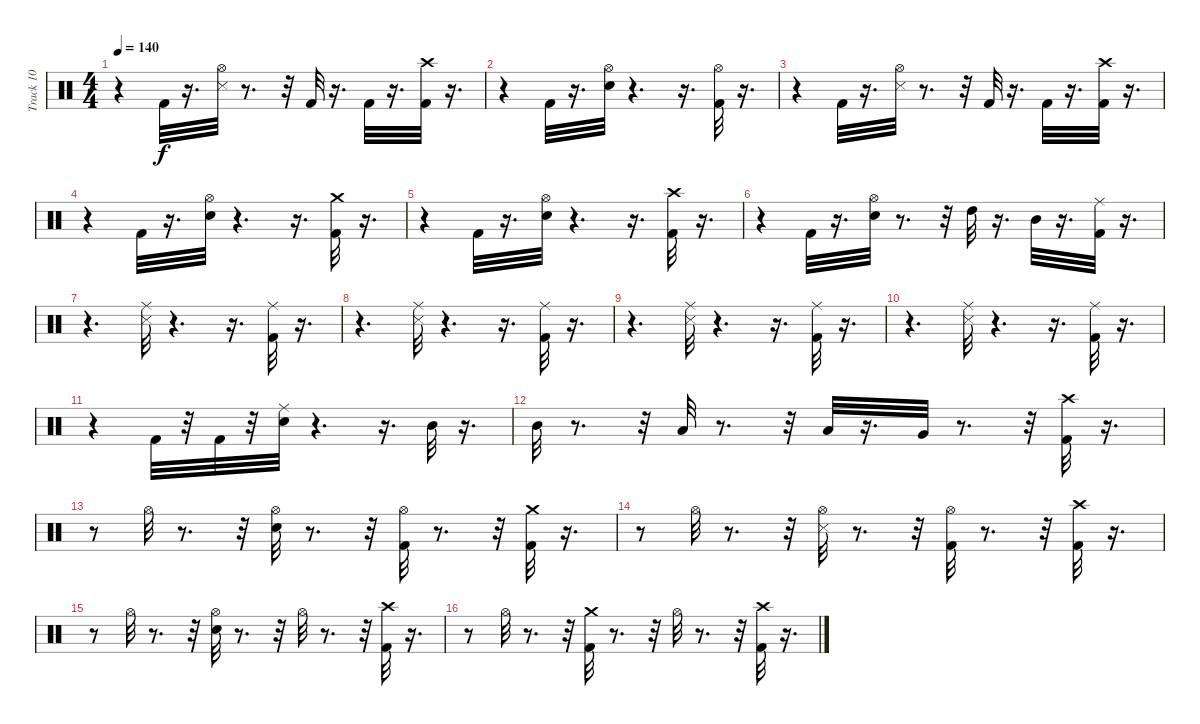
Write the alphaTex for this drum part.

\track ("Track 10" "Track 10") {instrument percussion}
\staff {score}
\articulation defaults
\ts (4 4)
\tempo 140
\clef neutral
\ks c
r.4{dy f} "Kick (hit) 2".32 r.16{d} ("Hi-Hat (open)" "Snare (side stick) 3").32 r.8{d} r.32 "Kick (hit) 2".32 r.16{d} "Kick (hit) 2".32 r.16{d} ("Crash high (hit)" "Kick (hit) 2").32 r.16{d} |
r.4 "Kick (hit) 2".32 r.16{d} ("Electric Snare (hit)" "Hi-Hat (open)").32 r.4{d} r.16{d} ("Hi-Hat (open)" "Kick (hit) 2").32 r.16{d} |
r.4 "Kick (hit) 2".32 r.16{d} ("Hi-Hat (open)" "Snare (side stick) 3").32 r.8{d} r.32 "Kick (hit) 2".32 r.16{d} "Kick (hit) 2".32 r.16{d} ("Crash high (hit)" "Kick (hit) 2").32 r.16{d} |
r.4 "Kick (hit) 2".32 r.16{d} ("Hi-Hat (open)" "Electric Snare (hit)").32 r.4{d} r.16{d} ("Kick (hit) 2" "Crash medium (hit)").32 r.16{d} |
r.4 "Kick (hit) 2".32 r.16{d} ("Hi-Hat (open)" "Electric Snare (hit)").32 r.4{d} r.16{d} ("Crash high (hit)" "Kick (hit) 2").32 r.16{d} |
r.4 "Kick (hit) 2".32 r.16{d} ("Hi-Hat (open)" "Electric Snare (hit)").32 r.8{d} r.32 "High Tom (hit)".32 r.16{d} "Mid Tom (hit)".32 r.16{d} ("Ride (middle)" "Kick (hit) 2").32 r.16{d} |
r.4{d} ("Snare (side stick) 3" "Ride (middle)").32 r.4{d} r.16{d} ("Ride (middle)" "Kick (hit) 2").32 r.16{d} |
r.4{d} ("Snare (side stick) 3" "Ride (middle)").32 r.4{d} r.16{d} ("Kick (hit) 2" "Ride (middle)").32 r.16{d} |
r.4{d} ("Snare (side stick) 3" "Ride (middle)").32 r.4{d} r.16{d} ("Ride (middle)" "Kick (hit) 2").32 r.16{d} |
r.4{d} ("Snare (side stick) 3" "Ride (middle)").32 r.4{d} r.16{d} ("Kick (hit) 2" "Ride (middle)").32 r.16{d} |
r.4 "Kick (hit) 2".32 r.32 "Kick (hit) 2".32 r.32 ("Electric Snare (hit)" "Ride (middle)").32 r.4{d} r.16{d} "Mid Tom (hit)".32 r.16{d} |
"Mid Tom (hit)".32 r.8{d} r.32 "Low Tom (hit)".32 r.8{d} r.32 "Low Tom (hit)".32 r.16{d} "Very Low Tom (hit)".32 r.8{d} r.32 ("Kick (hit) 2" "Crash high (hit)").32 r.16{d} |
r.8 "Hi-Hat (open)".32 r.8{d} r.32 ("Hi-Hat (open)" "Electric Snare (hit)").32 r.8{d} r.32 ("Kick (hit) 2" "Hi-Hat (open)").32 r.8{d} r.32 ("Kick (hit) 2" "Crash medium (hit)").32 r.16{d} |
r.8 "Hi-Hat (open)".32 r.8{d} r.32 ("Snare (side stick) 3" "Hi-Hat (open)").32 r.8{d} r.32 ("Hi-Hat (open)" "Kick (hit) 2").32 r.8{d} r.32 ("Kick (hit) 2" "Crash high (hit)").32 r.16{d} |
r.8 "Hi-Hat (open)".32 r.8{d} r.32 ("Electric Snare (hit)" "Hi-Hat (open)").32 r.8{d} r.32 "Hi-Hat (open)".32 r.8{d} r.32 ("Kick (hit) 2" "Crash high (hit)").32 r.16{d} |
r.8 "Hi-Hat (open)".32 r.8{d} r.32 ("Kick (hit) 2" "Crash medium (hit)").32 r.8{d} r.32 "Hi-Hat (open)".32 r.8{d} r.32 ("Crash high (hit)" "Kick (hit) 2").32 r.16{d}
